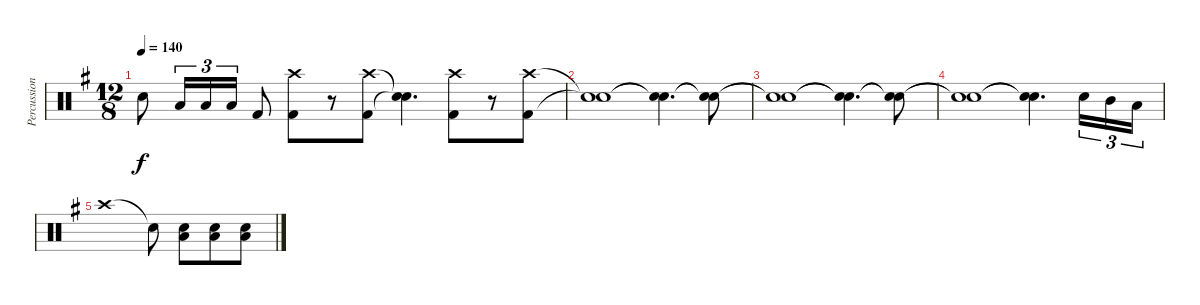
\track ("Percussion" "Percussion") {instrument percussion}
\staff {score}
\articulation defaults
\ts (12 8)
\tempo 140
\clef neutral
\ks g "Snare (hit) 2".8{dy f} "Low Tom (hit)".16{tu (3 2)} "Low Tom (hit)".16{tu (3 2)} "Low Tom (hit)".16{tu (3 2)} "Kick (hit) 2".8
("Crash high (hit)" "Kick (hit) 2").8 r.8 ("Crash high (hit)" "Kick (hit) 2").8 ("Snare (hit)"{t} "Snare (hit)"{t}).4{d} ("Crash high (hit)" "Kick (hit) 2").8 r.8 ("Crash high (hit)" "Kick (hit) 2").8 |
("Snare (hit)"{t} "Snare (hit)"{t}).1 ("Snare (hit)"{t} "Snare (hit)"{t}).4{d} ("Snare (hit)"{t} "Snare (hit)"{t}).8 |
("Snare (hit)"{t} "Snare (hit)"{t}).1 ("Snare (hit)"{t} "Snare (hit)"{t}).4{d} ("Snare (hit)"{t} "Snare (hit)"{t}).8 |
("Snare (hit)"{t} "Snare (hit)"{t}).1 ("Snare (hit)"{t} "Snare (hit)"{t}).4{d} "Snare (hit) 2".16{tu (3 2)} "Mid Tom (hit)".16{tu (3 2)} "Low Tom (hit)".16{tu (3 2)} |
"Crash high (hit)".1 "Snare (hit)"{t}.8 ("Low Tom (hit)" "Snare (hit) 2").8 ("Low Tom (hit)" "Snare (hit) 2").8 ("Low Tom (hit)" "Snare (hit) 2").8
